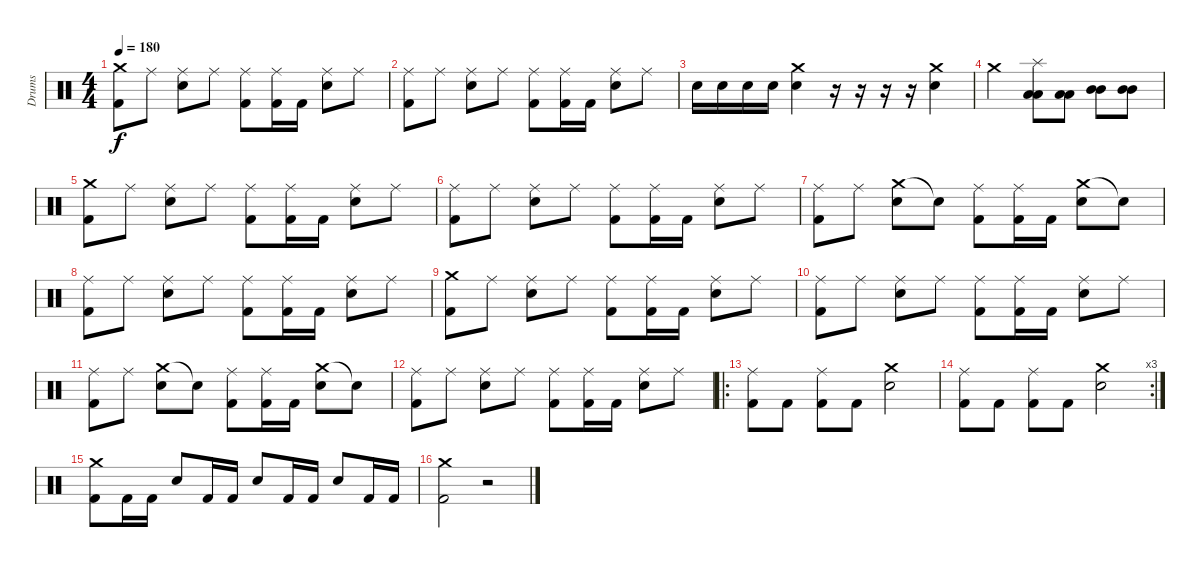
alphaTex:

\track ("Drums" "Drums") {instrument percussion}
\staff {score}
\articulation defaults
\ts (4 4)
\tempo 180
\clef neutral
\ks c
("Crash medium (hit)" "Kick (hit) 2").8{dy f} "Ride (middle)".8 ("Ride (middle)" "Electric Snare (hit)").8 "Ride (middle)".8 ("Ride (middle)" "Kick (hit) 2").8 ("Ride (middle)" "Kick (hit) 2").16 "Kick (hit) 2".16 ("Ride (middle)" "Electric Snare (hit)").8 "Ride (middle)".8 |
("Ride (middle)" "Kick (hit) 2").8 "Ride (middle)".8 ("Ride (middle)" "Electric Snare (hit)").8 "Ride (middle)".8 ("Ride (middle)" "Kick (hit) 2").8 ("Ride (middle)" "Kick (hit) 2").16 "Kick (hit) 2".16 ("Ride (middle)" "Electric Snare (hit)").8 "Ride (middle)".8 |
"Electric Snare (hit)".16 "Electric Snare (hit)".16 "Electric Snare (hit)".16 "Electric Snare (hit)".16 ("Electric Snare (hit)" "Crash medium (hit)").4 r.16 r.16 r.16 r.16 ("Electric Snare (hit)" "Crash medium (hit)").4 |
"Crash medium (hit)".2 ("Splash (hit)" "Low Tom (hit)" "Low Tom (hit)").8 ("Low Tom (hit)" "Low Tom (hit)").8 ("Mid Tom (hit)" "Mid Tom (hit)").8 ("Mid Tom (hit)" "Mid Tom (hit)").8 |
("Crash medium (hit)" "Kick (hit) 2").8 "Ride (middle)".8 ("Ride (middle)" "Electric Snare (hit)").8 "Ride (middle)".8 ("Ride (middle)" "Kick (hit) 2").8 ("Ride (middle)" "Kick (hit) 2").16 "Kick (hit) 2".16 ("Ride (middle)" "Electric Snare (hit)").8 "Ride (middle)".8 |
("Ride (middle)" "Kick (hit) 2").8 "Ride (middle)".8 ("Ride (middle)" "Electric Snare (hit)").8 "Ride (middle)".8 ("Ride (middle)" "Kick (hit) 2").8 ("Ride (middle)" "Kick (hit) 2").16 "Kick (hit) 2".16 ("Ride (middle)" "Electric Snare (hit)").8 "Ride (middle)".8 |
("Ride (middle)" "Kick (hit) 2").8 "Ride (middle)".8 ("Crash medium (hit)" "Electric Snare (hit)").8 "Snare (hit)"{t}.8 ("Ride (middle)" "Kick (hit) 2").8 ("Ride (middle)" "Kick (hit) 2").16 "Kick (hit) 2".16 ("Crash medium (hit)" "Electric Snare (hit)").8 "Snare (hit)"{t}.8 |
("Ride (middle)" "Kick (hit) 2").8 "Ride (middle)".8 ("Ride (middle)" "Electric Snare (hit)").8 "Ride (middle)".8 ("Ride (middle)" "Kick (hit) 2").8 ("Ride (middle)" "Kick (hit) 2").16 "Kick (hit) 2".16 ("Ride (middle)" "Electric Snare (hit)").8 "Ride (middle)".8 |
("Crash medium (hit)" "Kick (hit) 2").8 "Ride (middle)".8 ("Ride (middle)" "Electric Snare (hit)").8 "Ride (middle)".8 ("Ride (middle)" "Kick (hit) 2").8 ("Ride (middle)" "Kick (hit) 2").16 "Kick (hit) 2".16 ("Ride (middle)" "Electric Snare (hit)").8 "Ride (middle)".8 |
("Ride (middle)" "Kick (hit) 2").8 "Ride (middle)".8 ("Ride (middle)" "Electric Snare (hit)").8 "Ride (middle)".8 ("Ride (middle)" "Kick (hit) 2").8 ("Ride (middle)" "Kick (hit) 2").16 "Kick (hit) 2".16 ("Ride (middle)" "Electric Snare (hit)").8 "Ride (middle)".8 |
("Ride (middle)" "Kick (hit) 2").8 "Ride (middle)".8 ("Crash medium (hit)" "Electric Snare (hit)").8 "Snare (hit)"{t}.8 ("Ride (middle)" "Kick (hit) 2").8 ("Ride (middle)" "Kick (hit) 2").16 "Kick (hit) 2".16 ("Crash medium (hit)" "Electric Snare (hit)").8 "Snare (hit)"{t}.8 |
("Ride (middle)" "Kick (hit) 2").8 "Ride (middle)".8 ("Ride (middle)" "Electric Snare (hit)").8 "Ride (middle)".8 ("Ride (middle)" "Kick (hit) 2").8 ("Ride (middle)" "Kick (hit) 2").16 "Kick (hit) 2".16 ("Ride (middle)" "Electric Snare (hit)").8 "Ride (middle)".8 |
\ro
("Ride (middle)" "Kick (hit) 2").8 "Kick (hit) 2".8 ("Ride (middle)" "Kick (hit) 2").8 "Kick (hit) 2".8 ("Crash medium (hit)" "Electric Snare (hit)").2 |
\rc 3
("Ride (middle)" "Kick (hit) 2").8 "Kick (hit) 2".8 ("Ride (middle)" "Kick (hit) 2").8 "Kick (hit) 2".8 ("Crash medium (hit)" "Electric Snare (hit)").2 |
("Crash medium (hit)" "Kick (hit) 2").8 "Kick (hit) 2".16 "Kick (hit) 2".16 "Electric Snare (hit)".8 "Kick (hit) 2".16 "Kick (hit) 2".16 "Electric Snare (hit)".8 "Kick (hit) 2".16 "Kick (hit) 2".16 "Electric Snare (hit)".8 "Kick (hit) 2".16 "Kick (hit) 2".16 |
("Crash medium (hit)" "Kick (hit) 2").2 r.2
